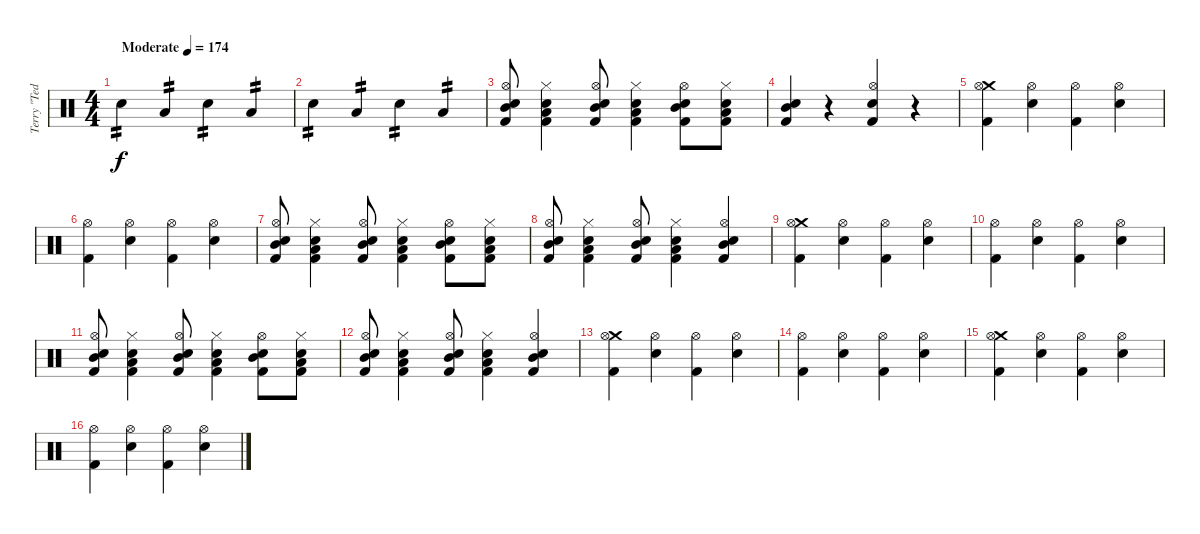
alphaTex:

\track ("Terry \"Ted\" Bozzio" "Terry \"Ted") {instrument percussion}
\staff {score}
\articulation defaults
\ts (4 4)
\tempo (174 "Moderate")
\clef neutral
\ks c "Electric Snare (hit)".4{tp 2 dy f} "Low Tom (hit)".4{tp 2} "Electric Snare (hit)".4{tp 2} "Low Tom (hit)".4{tp 2}
|
"Electric Snare (hit)".4{tp 2} "Low Tom (hit)".4{tp 2} "Electric Snare (hit)".4{tp 2} "Low Tom (hit)".4{tp 2} |
("Hi-Hat (open)" "Mid Tom (hit)" "Electric Snare (hit)" "Kick (hit) 2").8 ("Hi-Hat (closed)" "Low Tom (hit)" "Electric Snare (hit)" "Kick (hit) 2").4 ("Hi-Hat (open)" "Mid Tom (hit)" "Electric Snare (hit)" "Kick (hit) 2").8 ("Hi-Hat (closed)" "Low Tom (hit)" "Electric Snare (hit)" "Kick (hit) 2").4 ("Hi-Hat (open)" "Mid Tom (hit)" "Electric Snare (hit)" "Kick (hit) 2").8 ("Hi-Hat (closed)" "Low Tom (hit)" "Electric Snare (hit)" "Kick (hit) 2").8 |
("Mid Tom (hit)" "Electric Snare (hit)" "Kick (hit) 2").4 r.4 ("Hi-Hat (open)" "Electric Snare (hit)" "Kick (hit) 2").4 r.4 |
("Crash medium (hit)" "Hi-Hat (open)" "Kick (hit) 2").4 ("Hi-Hat (open)" "Electric Snare (hit)").4 ("Hi-Hat (open)" "Kick (hit) 2").4 ("Hi-Hat (open)" "Electric Snare (hit)").4 |
("Hi-Hat (open)" "Kick (hit) 2").4 ("Hi-Hat (open)" "Electric Snare (hit)").4 ("Hi-Hat (open)" "Kick (hit) 2").4 ("Hi-Hat (open)" "Electric Snare (hit)").4 |
("Hi-Hat (open)" "Mid Tom (hit)" "Electric Snare (hit)" "Kick (hit) 2").8 ("Hi-Hat (closed)" "Low Tom (hit)" "Electric Snare (hit)" "Kick (hit) 2").4 ("Hi-Hat (open)" "Mid Tom (hit)" "Electric Snare (hit)" "Kick (hit) 2").8 ("Hi-Hat (closed)" "Low Tom (hit)" "Electric Snare (hit)" "Kick (hit) 2").4 ("Hi-Hat (open)" "Mid Tom (hit)" "Electric Snare (hit)" "Kick (hit) 2").8 ("Hi-Hat (closed)" "Low Tom (hit)" "Electric Snare (hit)" "Kick (hit) 2").8 |
("Hi-Hat (open)" "Mid Tom (hit)" "Electric Snare (hit)" "Kick (hit) 2").8 ("Hi-Hat (closed)" "Low Tom (hit)" "Electric Snare (hit)" "Kick (hit) 2").4 ("Hi-Hat (open)" "Mid Tom (hit)" "Electric Snare (hit)" "Kick (hit) 2").8 ("Hi-Hat (closed)" "Low Tom (hit)" "Electric Snare (hit)" "Kick (hit) 2").4 ("Hi-Hat (open)" "Mid Tom (hit)" "Electric Snare (hit)" "Kick (hit) 2").4 |
("Crash medium (hit)" "Hi-Hat (open)" "Kick (hit) 2").4 ("Hi-Hat (open)" "Electric Snare (hit)").4 ("Hi-Hat (open)" "Kick (hit) 2").4 ("Hi-Hat (open)" "Electric Snare (hit)").4 |
("Hi-Hat (open)" "Kick (hit) 2").4 ("Hi-Hat (open)" "Electric Snare (hit)").4 ("Hi-Hat (open)" "Kick (hit) 2").4 ("Hi-Hat (open)" "Electric Snare (hit)").4 |
("Hi-Hat (open)" "Mid Tom (hit)" "Electric Snare (hit)" "Kick (hit) 2").8 ("Hi-Hat (closed)" "Low Tom (hit)" "Electric Snare (hit)" "Kick (hit) 2").4 ("Hi-Hat (open)" "Mid Tom (hit)" "Electric Snare (hit)" "Kick (hit) 2").8 ("Hi-Hat (closed)" "Low Tom (hit)" "Electric Snare (hit)" "Kick (hit) 2").4 ("Hi-Hat (open)" "Mid Tom (hit)" "Electric Snare (hit)" "Kick (hit) 2").8 ("Hi-Hat (closed)" "Low Tom (hit)" "Electric Snare (hit)" "Kick (hit) 2").8 |
("Hi-Hat (open)" "Mid Tom (hit)" "Electric Snare (hit)" "Kick (hit) 2").8 ("Hi-Hat (closed)" "Low Tom (hit)" "Electric Snare (hit)" "Kick (hit) 2").4 ("Hi-Hat (open)" "Mid Tom (hit)" "Electric Snare (hit)" "Kick (hit) 2").8 ("Hi-Hat (closed)" "Low Tom (hit)" "Electric Snare (hit)" "Kick (hit) 2").4 ("Hi-Hat (open)" "Mid Tom (hit)" "Electric Snare (hit)" "Kick (hit) 2").4 |
("Crash medium (hit)" "Hi-Hat (open)" "Kick (hit) 2").4 ("Hi-Hat (open)" "Electric Snare (hit)").4 ("Hi-Hat (open)" "Kick (hit) 2").4 ("Hi-Hat (open)" "Electric Snare (hit)").4 |
("Hi-Hat (open)" "Kick (hit) 2").4 ("Hi-Hat (open)" "Electric Snare (hit)").4 ("Hi-Hat (open)" "Kick (hit) 2").4 ("Hi-Hat (open)" "Electric Snare (hit)").4 |
("Crash medium (hit)" "Hi-Hat (open)" "Kick (hit) 2").4 ("Hi-Hat (open)" "Electric Snare (hit)").4 ("Hi-Hat (open)" "Kick (hit) 2").4 ("Hi-Hat (open)" "Electric Snare (hit)").4 |
("Hi-Hat (open)" "Kick (hit) 2").4 ("Hi-Hat (open)" "Electric Snare (hit)").4 ("Hi-Hat (open)" "Kick (hit) 2").4 ("Hi-Hat (open)" "Electric Snare (hit)").4
